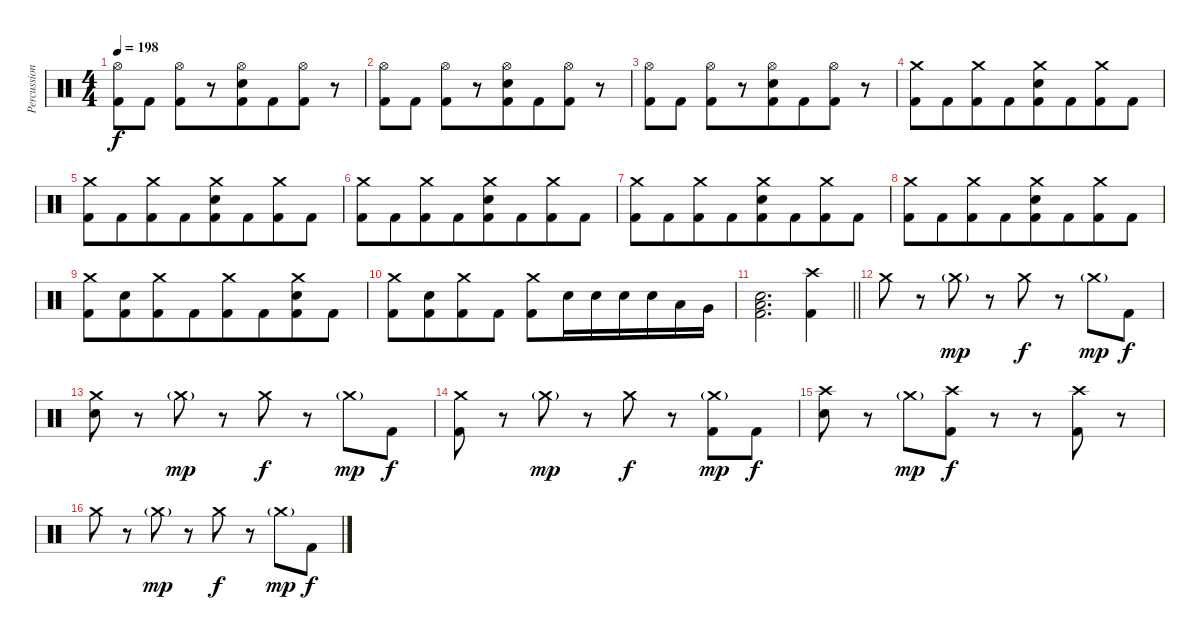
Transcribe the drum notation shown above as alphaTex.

\track ("Percussion" "Percussion") {instrument percussion}
\staff {score}
\articulation defaults
\ts (4 4)
\tempo 198
\clef neutral
\ks c
("Hi-Hat (open)" "Kick (hit) 2").8{dy f} "Kick (hit) 2".8 ("Hi-Hat (open)" "Kick (hit) 2").8{beam merge} r.8{beam merge} ("Hi-Hat (open)" "Electric Snare (hit)" "Kick (hit) 2").8 "Kick (hit) 2".8{beam merge} ("Hi-Hat (open)" "Kick (hit) 2").8 r.8 |
("Hi-Hat (open)" "Kick (hit) 2").8 "Kick (hit) 2".8 ("Hi-Hat (open)" "Kick (hit) 2").8{beam merge} r.8{beam merge} ("Hi-Hat (open)" "Electric Snare (hit)" "Kick (hit) 2").8 "Kick (hit) 2".8{beam merge} ("Hi-Hat (open)" "Kick (hit) 2").8 r.8 |
("Hi-Hat (open)" "Kick (hit) 2").8 "Kick (hit) 2".8 ("Hi-Hat (open)" "Kick (hit) 2").8{beam merge} r.8{beam merge} ("Hi-Hat (open)" "Electric Snare (hit)" "Kick (hit) 2").8 "Kick (hit) 2".8{beam merge} ("Hi-Hat (open)" "Kick (hit) 2").8 r.8 |
("Crash medium (hit)" "Kick (hit) 2").8{beam merge} "Kick (hit) 2".8{beam merge} ("Crash medium (hit)" "Kick (hit) 2").8{beam merge} "Kick (hit) 2".8{beam merge} ("Crash medium (hit)" "Electric Snare (hit)" "Kick (hit) 2").8 "Kick (hit) 2".8{beam merge} ("Crash medium (hit)" "Kick (hit) 2").8{beam merge} "Kick (hit) 2".8 |
("Crash medium (hit)" "Kick (hit) 2").8{beam merge} "Kick (hit) 2".8{beam merge} ("Crash medium (hit)" "Kick (hit) 2").8{beam merge} "Kick (hit) 2".8{beam merge} ("Crash medium (hit)" "Electric Snare (hit)" "Kick (hit) 2").8 "Kick (hit) 2".8{beam merge} ("Crash medium (hit)" "Kick (hit) 2").8{beam merge} "Kick (hit) 2".8 |
("Crash medium (hit)" "Kick (hit) 2").8{beam merge} "Kick (hit) 2".8{beam merge} ("Crash medium (hit)" "Kick (hit) 2").8{beam merge} "Kick (hit) 2".8{beam merge} ("Crash medium (hit)" "Electric Snare (hit)" "Kick (hit) 2").8 "Kick (hit) 2".8{beam merge} ("Crash medium (hit)" "Kick (hit) 2").8{beam merge} "Kick (hit) 2".8 |
("Crash medium (hit)" "Kick (hit) 2").8{beam merge} "Kick (hit) 2".8{beam merge} ("Crash medium (hit)" "Kick (hit) 2").8{beam merge} "Kick (hit) 2".8{beam merge} ("Crash medium (hit)" "Electric Snare (hit)" "Kick (hit) 2").8 "Kick (hit) 2".8{beam merge} ("Crash medium (hit)" "Kick (hit) 2").8{beam merge} "Kick (hit) 2".8 |
("Crash medium (hit)" "Kick (hit) 2").8{beam merge} "Kick (hit) 2".8{beam merge} ("Crash medium (hit)" "Kick (hit) 2").8{beam merge} "Kick (hit) 2".8{beam merge} ("Crash medium (hit)" "Electric Snare (hit)" "Kick (hit) 2").8 "Kick (hit) 2".8{beam merge} ("Crash medium (hit)" "Kick (hit) 2").8{beam merge} "Kick (hit) 2".8 |
("Crash medium (hit)" "Kick (hit) 2").8{beam merge} ("Electric Snare (hit)" "Kick (hit) 2").8{beam merge} ("Crash medium (hit)" "Kick (hit) 2").8{beam merge} "Kick (hit) 2".8{beam merge} ("Crash medium (hit)" "Kick (hit) 2").8 "Kick (hit) 2".8{beam merge} ("Crash medium (hit)" "Electric Snare (hit)" "Kick (hit) 2").8{beam merge} "Kick (hit) 2".8 |
("Crash medium (hit)" "Kick (hit) 2").8{beam merge} ("Electric Snare (hit)" "Kick (hit) 2").8{beam merge} ("Crash medium (hit)" "Kick (hit) 2").8{beam merge} "Kick (hit) 2".8 ("Crash medium (hit)" "Kick (hit) 2").8 "Electric Snare (hit)".16 "Electric Snare (hit)".16{beam merge} "Electric Snare (hit)".16{beam merge} "Electric Snare (hit)".16 "Low Tom (hit)".16 "Very Low Tom (hit)".16 |
\barLineRight lightlight
("Electric Snare (hit)" "Low Floor Tom (hit)" "Kick (hit) 2").2{d beam merge} ("Crash high (hit)" "Kick (hit) 2").4 |
\section ("" "")
"Crash medium (hit)".8 r.8 "Crash medium (hit)"{g}.8{dy mp} r.8 "Crash medium (hit)".8{dy f} r.8 "Crash medium (hit)"{g}.8{dy mp beam merge} "Kick (hit) 2".8{dy f} |
("Crash medium (hit)" "Electric Snare (hit)").8 r.8 "Crash medium (hit)"{g}.8{dy mp} r.8 "Crash medium (hit)".8{dy f} r.8 "Crash medium (hit)"{g}.8{dy mp beam merge} "Kick (hit) 2".8{dy f} |
("Crash medium (hit)" "Kick (hit) 2").8 r.8 "Crash medium (hit)"{g}.8{dy mp} r.8 "Crash medium (hit)".8{dy f} r.8 ("Crash medium (hit)"{g} "Kick (hit) 2").8{dy mp beam merge} "Kick (hit) 2".8{dy f} |
("Crash high (hit)" "Electric Snare (hit)").8 r.8 "Crash medium (hit)"{g}.8{dy mp} ("Crash high (hit)" "Kick (hit) 2").8{dy f} r.8 r.8 ("Crash high (hit)" "Kick (hit) 2").8{beam merge} r.8 |
"Crash medium (hit)".8 r.8 "Crash medium (hit)"{g}.8{dy mp} r.8 "Crash medium (hit)".8{dy f} r.8 "Crash medium (hit)"{g}.8{dy mp beam merge} "Kick (hit) 2".8{dy f}
